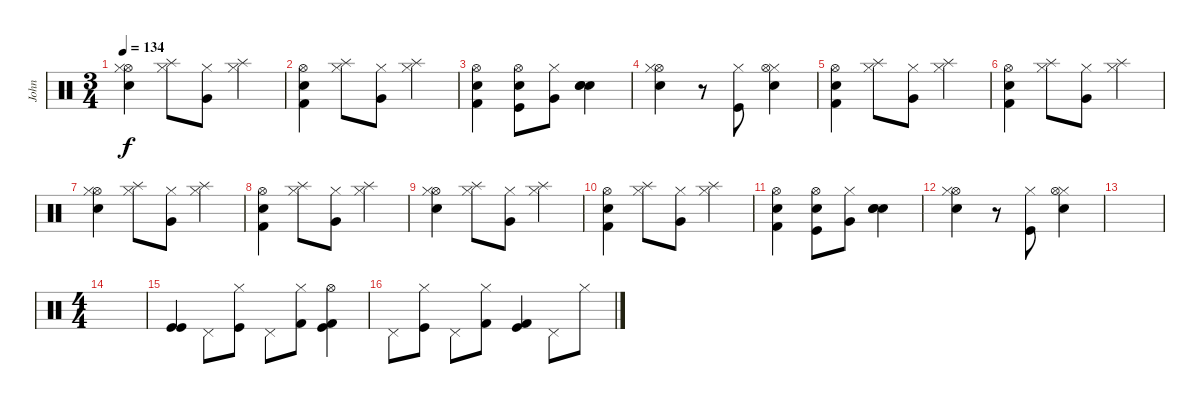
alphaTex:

\track ("John" "John") {instrument percussion}
\staff {score}
\articulation defaults
\ts (3 4)
\tempo 134
\clef neutral
\ks c
("Hi-Hat (open)" "Hi-Hat (closed)" "Electric Snare (hit)").4{dy f} ("Hi-Hat (closed)" "Splash (hit)").8 ("Hi-Hat (closed)" "Very Low Tom (hit)").8 ("Hi-Hat (closed)" "Splash (hit)").4 |
("Hi-Hat (open)" "Electric Snare (hit)" "Kick (hit) 2").4 ("Hi-Hat (closed)" "Splash (hit)").8 ("Hi-Hat (closed)" "Very Low Tom (hit)").8 ("Hi-Hat (closed)" "Splash (hit)").4 |
("Hi-Hat (open)" "Electric Snare (hit)" "Kick (hit) 2").4 ("Hi-Hat (open)" "Electric Snare (hit)" "Kick (hit)").8 ("Hi-Hat (closed)" "Very Low Tom (hit)").8 ("Electric Snare (hit)" "Electric Snare (hit)" "Snare (hit) 2").4 |
("Hi-Hat (open)" "Hi-Hat (closed)" "Electric Snare (hit)").4 r.8 ("Hi-Hat (closed)" "Kick (hit)").8 ("Hi-Hat (closed)" "Electric Snare (hit)" "Hi-Hat (open)").4 |
("Hi-Hat (open)" "Electric Snare (hit)" "Kick (hit) 2").4 ("Hi-Hat (closed)" "Splash (hit)").8 ("Hi-Hat (closed)" "Very Low Tom (hit)").8 ("Hi-Hat (closed)" "Splash (hit)").4 |
("Hi-Hat (open)" "Electric Snare (hit)" "Kick (hit) 2").4 ("Hi-Hat (closed)" "Splash (hit)").8 ("Hi-Hat (closed)" "Very Low Tom (hit)").8 ("Hi-Hat (closed)" "Splash (hit)").4 |
("Hi-Hat (open)" "Hi-Hat (closed)" "Electric Snare (hit)").4 ("Hi-Hat (closed)" "Splash (hit)").8 ("Hi-Hat (closed)" "Very Low Tom (hit)").8 ("Hi-Hat (closed)" "Splash (hit)").4 |
("Hi-Hat (open)" "Electric Snare (hit)" "Kick (hit) 2").4 ("Hi-Hat (closed)" "Splash (hit)").8 ("Hi-Hat (closed)" "Very Low Tom (hit)").8 ("Hi-Hat (closed)" "Splash (hit)").4 |
("Hi-Hat (open)" "Hi-Hat (closed)" "Electric Snare (hit)").4 ("Hi-Hat (closed)" "Splash (hit)").8 ("Hi-Hat (closed)" "Very Low Tom (hit)").8 ("Hi-Hat (closed)" "Splash (hit)").4 |
("Hi-Hat (open)" "Electric Snare (hit)" "Kick (hit) 2").4 ("Hi-Hat (closed)" "Splash (hit)").8 ("Hi-Hat (closed)" "Very Low Tom (hit)").8 ("Hi-Hat (closed)" "Splash (hit)").4 |
("Hi-Hat (open)" "Electric Snare (hit)" "Kick (hit) 2").4 ("Hi-Hat (open)" "Electric Snare (hit)" "Kick (hit)").8 ("Hi-Hat (closed)" "Very Low Tom (hit)").8 ("Electric Snare (hit)" "Electric Snare (hit)" "Snare (hit) 2").4 |
("Hi-Hat (open)" "Hi-Hat (closed)" "Electric Snare (hit)").4 r.8 ("Hi-Hat (closed)" "Kick (hit)").8 ("Hi-Hat (closed)" "Electric Snare (hit)" "Hi-Hat (open)").4 |
|
\ts (4 4)
|
("Kick (hit)" "Kick (hit)").4 "Pedal Hi-Hat (hit)".8 ("Hi-Hat (closed)" "Kick (hit)").8 "Pedal Hi-Hat (hit)".8 ("Hi-Hat (closed)" "Kick (hit) 2").8 ("Kick (hit)" "Kick (hit) 2" "Hi-Hat (open)").4 |
"Pedal Hi-Hat (hit)".8 ("Hi-Hat (closed)" "Kick (hit)").8 "Pedal Hi-Hat (hit)".8 ("Hi-Hat (closed)" "Kick (hit) 2").8 ("Kick (hit)" "Kick (hit) 2").4 "Pedal Hi-Hat (hit)".8 "Hi-Hat (closed)".8
